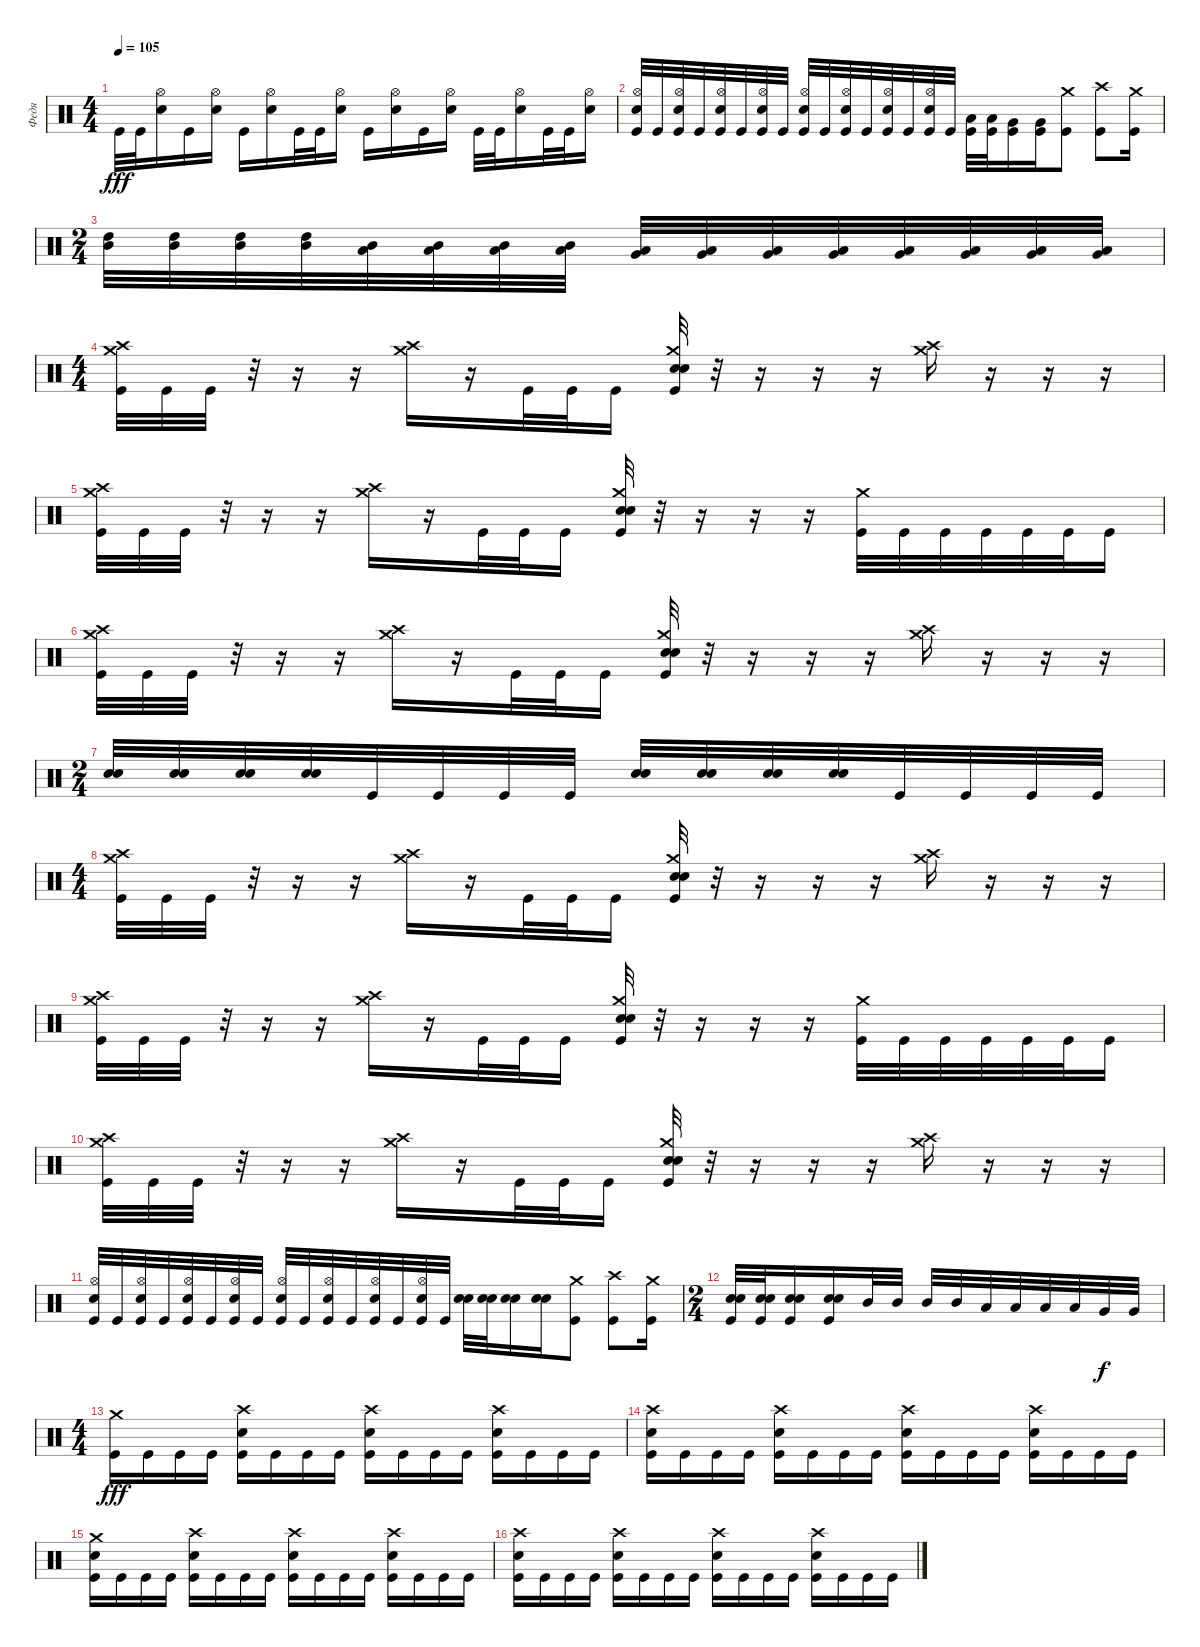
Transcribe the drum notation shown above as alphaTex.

\track ("Федя" "Федя") {instrument percussion}
\staff {score}
\articulation defaults
\ts (4 4)
\tempo 105
\clef neutral
\ks c "Kick (hit)".32{dy fff} "Kick (hit)".32
("Hi-Hat (open)" "Snare (hit) 2").16 "Kick (hit)".16 ("Hi-Hat (open)" "Snare (hit) 2").16 "Kick (hit)".16 ("Hi-Hat (open)" "Snare (hit) 2").16 "Kick (hit)".32 "Kick (hit)".32 ("Hi-Hat (open)" "Snare (hit) 2").16 "Kick (hit)".16 ("Hi-Hat (open)" "Snare (hit) 2").16 "Kick (hit)".16 ("Hi-Hat (open)" "Snare (hit) 2").16 "Kick (hit)".32 "Kick (hit)".32 ("Hi-Hat (open)" "Snare (hit) 2").16 "Kick (hit)".32 "Kick (hit)".32 ("Hi-Hat (open)" "Snare (hit) 2").16 |
("Hi-Hat (open)" "Snare (hit) 2" "Kick (hit)").32 "Kick (hit)".32 ("Hi-Hat (open)" "Snare (hit) 2" "Kick (hit)").32 "Kick (hit)".32 ("Hi-Hat (open)" "Snare (hit) 2" "Kick (hit)").32 "Kick (hit)".32 ("Hi-Hat (open)" "Snare (hit) 2" "Kick (hit)").32 "Kick (hit)".32 ("Hi-Hat (open)" "Snare (hit) 2" "Kick (hit)").32 "Kick (hit)".32 ("Hi-Hat (open)" "Snare (hit) 2" "Kick (hit)").32 "Kick (hit)".32 ("Hi-Hat (open)" "Snare (hit) 2" "Kick (hit)").32 "Kick (hit)".32 ("Hi-Hat (open)" "Snare (hit) 2" "Kick (hit)").32 "Kick (hit)".32 ("Low Tom (hit)" "Kick (hit)").32 ("Low Tom (hit)" "Kick (hit)").32 ("Very Low Tom (hit)" "Kick (hit)").16 ("Very Low Tom (hit)" "Kick (hit)").16 ("Crash medium (hit)" "Kick (hit)").8 ("Crash high (hit)" "Kick (hit)").8 ("Crash medium (hit)" "Kick (hit)").16 |
\ts (2 4)
("High Tom (hit)" "Mid Tom (hit)").32 ("High Tom (hit)" "Mid Tom (hit)").32 ("High Tom (hit)" "Mid Tom (hit)").32 ("High Tom (hit)" "Mid Tom (hit)").32 ("Mid Tom (hit)" "Low Tom (hit)").32 ("Mid Tom (hit)" "Low Tom (hit)").32 ("Mid Tom (hit)" "Low Tom (hit)").32 ("Mid Tom (hit)" "Low Tom (hit)").32 ("Low Tom (hit)" "Very Low Tom (hit)").32 ("Low Tom (hit)" "Very Low Tom (hit)").32 ("Low Tom (hit)" "Very Low Tom (hit)").32 ("Low Tom (hit)" "Very Low Tom (hit)").32 ("Very Low Tom (hit)" "Low Floor Tom (hit)").32 ("Very Low Tom (hit)" "Low Floor Tom (hit)").32 ("Very Low Tom (hit)" "Low Floor Tom (hit)").32 ("Very Low Tom (hit)" "Low Floor Tom (hit)").32 |
\ts (4 4)
("Crash medium (hit)" "Crash high (hit)" "Kick (hit)").32 "Kick (hit)".32 "Kick (hit)".32 r.32 r.16 r.16 ("Crash medium (hit)" "Crash high (hit)").16 r.16 "Kick (hit)".32 "Kick (hit)".32 "Kick (hit)".16 ("Crash medium (hit)" "Electric Snare (hit)" "Snare (hit) 2" "Kick (hit)").32 r.32 r.16 r.16 r.16 ("Crash medium (hit)" "Crash high (hit)").16 r.16 r.16 r.16 |
("Crash medium (hit)" "Crash high (hit)" "Kick (hit)").32 "Kick (hit)".32 "Kick (hit)".32 r.32 r.16 r.16 ("Crash medium (hit)" "Crash high (hit)").16 r.16 "Kick (hit)".32 "Kick (hit)".32 "Kick (hit)".16 ("Crash medium (hit)" "Electric Snare (hit)" "Snare (hit) 2" "Kick (hit)").32 r.32 r.16 r.16 r.16 ("Crash medium (hit)" "Kick (hit)").32 "Kick (hit)".32 "Kick (hit)".32 "Kick (hit)".32 "Kick (hit)".32 "Kick (hit)".32 "Kick (hit)".16 |
("Crash medium (hit)" "Crash high (hit)" "Kick (hit)").32 "Kick (hit)".32 "Kick (hit)".32 r.32 r.16 r.16 ("Crash medium (hit)" "Crash high (hit)").16 r.16 "Kick (hit)".32 "Kick (hit)".32 "Kick (hit)".16 ("Crash medium (hit)" "Electric Snare (hit)" "Snare (hit) 2" "Kick (hit)").32 r.32 r.16 r.16 r.16 ("Crash medium (hit)" "Crash high (hit)").16 r.16 r.16 r.16 |
\ts (2 4)
("Electric Snare (hit)" "Snare (hit) 2").32 ("Electric Snare (hit)" "Snare (hit) 2").32 ("Electric Snare (hit)" "Snare (hit) 2").32 ("Electric Snare (hit)" "Snare (hit) 2").32 "Kick (hit)".32 "Kick (hit)".32 "Kick (hit)".32 "Kick (hit)".32 ("Electric Snare (hit)" "Snare (hit) 2").32 ("Electric Snare (hit)" "Snare (hit) 2").32 ("Electric Snare (hit)" "Snare (hit) 2").32 ("Electric Snare (hit)" "Snare (hit) 2").32 "Kick (hit)".32 "Kick (hit)".32 "Kick (hit)".32 "Kick (hit)".32 |
\ts (4 4)
("Crash medium (hit)" "Crash high (hit)" "Kick (hit)").32 "Kick (hit)".32 "Kick (hit)".32 r.32 r.16 r.16 ("Crash medium (hit)" "Crash high (hit)").16 r.16 "Kick (hit)".32 "Kick (hit)".32 "Kick (hit)".16 ("Crash medium (hit)" "Electric Snare (hit)" "Snare (hit) 2" "Kick (hit)").32 r.32 r.16 r.16 r.16 ("Crash medium (hit)" "Crash high (hit)").16 r.16 r.16 r.16 |
("Crash medium (hit)" "Crash high (hit)" "Kick (hit)").32 "Kick (hit)".32 "Kick (hit)".32 r.32 r.16 r.16 ("Crash medium (hit)" "Crash high (hit)").16 r.16 "Kick (hit)".32 "Kick (hit)".32 "Kick (hit)".16 ("Crash medium (hit)" "Electric Snare (hit)" "Snare (hit) 2" "Kick (hit)").32 r.32 r.16 r.16 r.16 ("Crash medium (hit)" "Kick (hit)").32 "Kick (hit)".32 "Kick (hit)".32 "Kick (hit)".32 "Kick (hit)".32 "Kick (hit)".32 "Kick (hit)".16 |
("Crash medium (hit)" "Crash high (hit)" "Kick (hit)").32 "Kick (hit)".32 "Kick (hit)".32 r.32 r.16 r.16 ("Crash medium (hit)" "Crash high (hit)").16 r.16 "Kick (hit)".32 "Kick (hit)".32 "Kick (hit)".16 ("Crash medium (hit)" "Electric Snare (hit)" "Snare (hit) 2" "Kick (hit)").32 r.32 r.16 r.16 r.16 ("Crash medium (hit)" "Crash high (hit)").16 r.16 r.16 r.16 |
("Hi-Hat (open)" "Snare (hit) 2" "Kick (hit)").32 "Kick (hit)".32 ("Hi-Hat (open)" "Snare (hit) 2" "Kick (hit)").32 "Kick (hit)".32 ("Hi-Hat (open)" "Snare (hit) 2" "Kick (hit)").32 "Kick (hit)".32 ("Hi-Hat (open)" "Snare (hit) 2" "Kick (hit)").32 "Kick (hit)".32 ("Hi-Hat (open)" "Snare (hit) 2" "Kick (hit)").32 "Kick (hit)".32 ("Hi-Hat (open)" "Snare (hit) 2" "Kick (hit)").32 "Kick (hit)".32 ("Hi-Hat (open)" "Snare (hit) 2" "Kick (hit)").32 "Kick (hit)".32 ("Hi-Hat (open)" "Snare (hit) 2" "Kick (hit)").32 "Kick (hit)".32 ("Electric Snare (hit)" "Snare (hit) 2").32 ("Electric Snare (hit)" "Snare (hit) 2").32 ("Electric Snare (hit)" "Snare (hit) 2").16 ("Electric Snare (hit)" "Snare (hit) 2").16 ("Crash medium (hit)" "Kick (hit)").8 ("Crash high (hit)" "Kick (hit)").8 ("Crash medium (hit)" "Kick (hit)").16 |
\ts (2 4)
("Electric Snare (hit)" "Snare (hit) 2" "Kick (hit)").32 ("Electric Snare (hit)" "Snare (hit) 2" "Kick (hit)").32 ("Electric Snare (hit)" "Snare (hit) 2" "Kick (hit)").16 ("Electric Snare (hit)" "Snare (hit) 2" "Kick (hit)").16 "Mid Tom (hit)".32 "Mid Tom (hit)".32 "Mid Tom (hit)".32 "Mid Tom (hit)".32 "Low Tom (hit)".32 "Low Tom (hit)".32 "Low Tom (hit)".32 "Low Tom (hit)".32 "Very Low Tom (hit)".32{dy f} "Very Low Tom (hit)".32 |
\ts (4 4)
("Crash medium (hit)" "Kick (hit)").16{dy fff} "Kick (hit)".16 "Kick (hit)".16 "Kick (hit)".16 ("Crash high (hit)" "Snare (hit) 2" "Kick (hit)").16 "Kick (hit)".16 "Kick (hit)".16 "Kick (hit)".16 ("Crash high (hit)" "Snare (hit) 2" "Kick (hit)").16 "Kick (hit)".16 "Kick (hit)".16 "Kick (hit)".16 ("Crash high (hit)" "Snare (hit) 2" "Kick (hit)").16 "Kick (hit)".16 "Kick (hit)".16 "Kick (hit)".16 |
("Crash high (hit)" "Snare (hit) 2" "Kick (hit)").16 "Kick (hit)".16 "Kick (hit)".16 "Kick (hit)".16 ("Crash high (hit)" "Snare (hit) 2" "Kick (hit)").16 "Kick (hit)".16 "Kick (hit)".16 "Kick (hit)".16 ("Crash high (hit)" "Snare (hit) 2" "Kick (hit)").16 "Kick (hit)".16 "Kick (hit)".16 "Kick (hit)".16 ("Crash high (hit)" "Snare (hit) 2" "Kick (hit)").16 "Kick (hit)".16 "Kick (hit)".16 "Kick (hit)".16 |
("Crash medium (hit)" "Snare (hit) 2" "Kick (hit)").16 "Kick (hit)".16 "Kick (hit)".16 "Kick (hit)".16 ("Crash high (hit)" "Snare (hit) 2" "Kick (hit)").16 "Kick (hit)".16 "Kick (hit)".16 "Kick (hit)".16 ("Crash high (hit)" "Snare (hit) 2" "Kick (hit)").16 "Kick (hit)".16 "Kick (hit)".16 "Kick (hit)".16 ("Crash high (hit)" "Snare (hit) 2" "Kick (hit)").16 "Kick (hit)".16 "Kick (hit)".16 "Kick (hit)".16 |
("Crash high (hit)" "Snare (hit) 2" "Kick (hit)").16 "Kick (hit)".16 "Kick (hit)".16 "Kick (hit)".16 ("Crash high (hit)" "Snare (hit) 2" "Kick (hit)").16 "Kick (hit)".16 "Kick (hit)".16 "Kick (hit)".16 ("Crash high (hit)" "Snare (hit) 2" "Kick (hit)").16 "Kick (hit)".16 "Kick (hit)".16 "Kick (hit)".16 ("Crash high (hit)" "Snare (hit) 2" "Kick (hit)").16 "Kick (hit)".16 "Kick (hit)".16 "Kick (hit)".16
